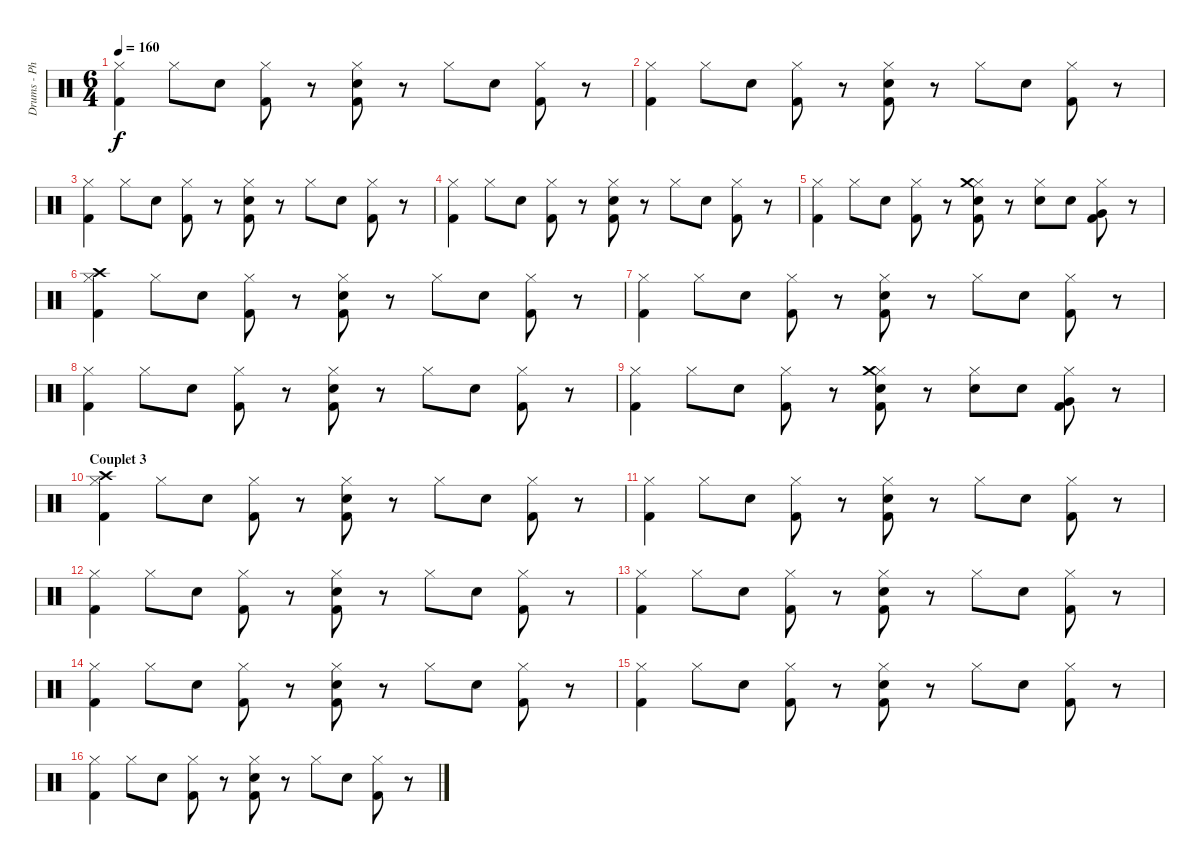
\track ("Drums - Phil Selway" "Drums - Ph") {instrument percussion}
\staff {score}
\articulation defaults
\ts (6 4)
\tempo 160
\clef neutral
\ks c
("Hi-Hat (closed)" "Kick (hit) 2").4{dy f} "Hi-Hat (closed)".8 "Snare (hit) 2".8 ("Hi-Hat (closed)" "Kick (hit) 2").8 r.8 ("Hi-Hat (closed)" "Snare (hit) 2" "Kick (hit) 2").8 r.8 "Hi-Hat (closed)".8 "Snare (hit) 2".8 ("Hi-Hat (closed)" "Kick (hit) 2").8 r.8 |
("Hi-Hat (closed)" "Kick (hit) 2").4 "Hi-Hat (closed)".8 "Snare (hit) 2".8 ("Hi-Hat (closed)" "Kick (hit) 2").8 r.8 ("Hi-Hat (closed)" "Snare (hit) 2" "Kick (hit) 2").8 r.8 "Hi-Hat (closed)".8 "Snare (hit) 2".8 ("Hi-Hat (closed)" "Kick (hit) 2").8 r.8 |
("Hi-Hat (closed)" "Kick (hit) 2").4 "Hi-Hat (closed)".8 "Snare (hit) 2".8 ("Hi-Hat (closed)" "Kick (hit) 2").8 r.8 ("Hi-Hat (closed)" "Snare (hit) 2" "Kick (hit) 2").8 r.8 "Hi-Hat (closed)".8 "Snare (hit) 2".8 ("Hi-Hat (closed)" "Kick (hit) 2").8 r.8 |
("Hi-Hat (closed)" "Kick (hit) 2").4 "Hi-Hat (closed)".8 "Snare (hit) 2".8 ("Hi-Hat (closed)" "Kick (hit) 2").8 r.8 ("Hi-Hat (closed)" "Snare (hit) 2" "Kick (hit) 2").8 r.8 "Hi-Hat (closed)".8 "Snare (hit) 2".8 ("Hi-Hat (closed)" "Kick (hit) 2").8 r.8 |
("Hi-Hat (closed)" "Kick (hit) 2").4 "Hi-Hat (closed)".8 "Snare (hit) 2".8 ("Hi-Hat (closed)" "Kick (hit) 2").8 r.8 ("Hi-Hat (closed)" "Crash medium (hit)" "Snare (hit) 2" "Kick (hit) 2").8 r.8 ("Hi-Hat (closed)" "Snare (hit) 2").8 "Snare (hit) 2".8 ("Hi-Hat (closed)" "Very Low Tom (hit)" "Kick (hit) 2").8 r.8 |
("Hi-Hat (closed)" "Crash high (hit)" "Kick (hit) 2").4 "Hi-Hat (closed)".8 "Snare (hit) 2".8 ("Hi-Hat (closed)" "Kick (hit) 2").8 r.8 ("Hi-Hat (closed)" "Snare (hit) 2" "Kick (hit) 2").8 r.8 "Hi-Hat (closed)".8 "Snare (hit) 2".8 ("Hi-Hat (closed)" "Kick (hit) 2").8 r.8 |
("Hi-Hat (closed)" "Kick (hit) 2").4 "Hi-Hat (closed)".8 "Snare (hit) 2".8 ("Hi-Hat (closed)" "Kick (hit) 2").8 r.8 ("Hi-Hat (closed)" "Snare (hit) 2" "Kick (hit) 2").8 r.8 "Hi-Hat (closed)".8 "Snare (hit) 2".8 ("Hi-Hat (closed)" "Kick (hit) 2").8 r.8 |
("Hi-Hat (closed)" "Kick (hit) 2").4 "Hi-Hat (closed)".8 "Snare (hit) 2".8 ("Hi-Hat (closed)" "Kick (hit) 2").8 r.8 ("Hi-Hat (closed)" "Snare (hit) 2" "Kick (hit) 2").8 r.8 "Hi-Hat (closed)".8 "Snare (hit) 2".8 ("Hi-Hat (closed)" "Kick (hit) 2").8 r.8 |
("Hi-Hat (closed)" "Kick (hit) 2").4 "Hi-Hat (closed)".8 "Snare (hit) 2".8 ("Hi-Hat (closed)" "Kick (hit) 2").8 r.8 ("Hi-Hat (closed)" "Crash medium (hit)" "Snare (hit) 2" "Kick (hit) 2").8 r.8 ("Hi-Hat (closed)" "Snare (hit) 2").8 "Snare (hit) 2".8 ("Hi-Hat (closed)" "Very Low Tom (hit)" "Kick (hit) 2").8 r.8 |
\section ("" "Couplet 3")
("Hi-Hat (closed)" "Crash high (hit)" "Kick (hit) 2").4 "Hi-Hat (closed)".8 "Snare (hit) 2".8 ("Hi-Hat (closed)" "Kick (hit) 2").8 r.8 ("Hi-Hat (closed)" "Snare (hit) 2" "Kick (hit) 2").8 r.8 "Hi-Hat (closed)".8 "Snare (hit) 2".8 ("Hi-Hat (closed)" "Kick (hit) 2").8 r.8 |
("Hi-Hat (closed)" "Kick (hit) 2").4 "Hi-Hat (closed)".8 "Snare (hit) 2".8 ("Hi-Hat (closed)" "Kick (hit) 2").8 r.8 ("Hi-Hat (closed)" "Snare (hit) 2" "Kick (hit) 2").8 r.8 "Hi-Hat (closed)".8 "Snare (hit) 2".8 ("Hi-Hat (closed)" "Kick (hit) 2").8 r.8 |
("Hi-Hat (closed)" "Kick (hit) 2").4 "Hi-Hat (closed)".8 "Snare (hit) 2".8 ("Hi-Hat (closed)" "Kick (hit) 2").8 r.8 ("Hi-Hat (closed)" "Snare (hit) 2" "Kick (hit) 2").8 r.8 "Hi-Hat (closed)".8 "Snare (hit) 2".8 ("Hi-Hat (closed)" "Kick (hit) 2").8 r.8 |
("Hi-Hat (closed)" "Kick (hit) 2").4 "Hi-Hat (closed)".8 "Snare (hit) 2".8 ("Hi-Hat (closed)" "Kick (hit) 2").8 r.8 ("Hi-Hat (closed)" "Snare (hit) 2" "Kick (hit) 2").8 r.8 "Hi-Hat (closed)".8 "Snare (hit) 2".8 ("Hi-Hat (closed)" "Kick (hit) 2").8 r.8 |
("Hi-Hat (closed)" "Kick (hit) 2").4 "Hi-Hat (closed)".8 "Snare (hit) 2".8 ("Hi-Hat (closed)" "Kick (hit) 2").8 r.8 ("Hi-Hat (closed)" "Snare (hit) 2" "Kick (hit) 2").8 r.8 "Hi-Hat (closed)".8 "Snare (hit) 2".8 ("Hi-Hat (closed)" "Kick (hit) 2").8 r.8 |
("Hi-Hat (closed)" "Kick (hit) 2").4 "Hi-Hat (closed)".8 "Snare (hit) 2".8 ("Hi-Hat (closed)" "Kick (hit) 2").8 r.8 ("Hi-Hat (closed)" "Snare (hit) 2" "Kick (hit) 2").8 r.8 "Hi-Hat (closed)".8 "Snare (hit) 2".8 ("Hi-Hat (closed)" "Kick (hit) 2").8 r.8 |
("Hi-Hat (closed)" "Kick (hit) 2").4 "Hi-Hat (closed)".8 "Snare (hit) 2".8 ("Hi-Hat (closed)" "Kick (hit) 2").8 r.8 ("Hi-Hat (closed)" "Snare (hit) 2" "Kick (hit) 2").8 r.8 "Hi-Hat (closed)".8 "Snare (hit) 2".8 ("Hi-Hat (closed)" "Kick (hit) 2").8 r.8
